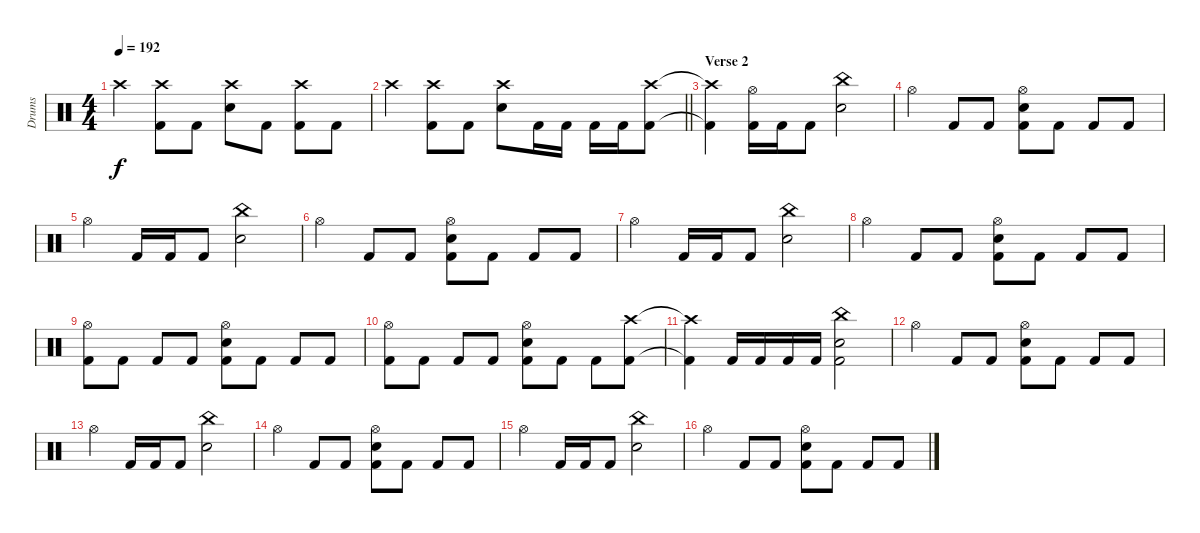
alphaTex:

\track ("Drums" "Drums") {instrument percussion}
\staff {score}
\articulation defaults
\ts (4 4)
\tempo 192
\clef neutral
\ks c "Crash high (hit)".4{dy f}
("Crash high (hit)" "Kick (hit) 2").8 "Kick (hit) 2".8 ("Crash high (hit)" "Electric Snare (hit)").8 "Kick (hit) 2".8 ("Crash high (hit)" "Kick (hit) 2").8 "Kick (hit) 2".8 |
\barLineRight lightlight "Crash high (hit)".4
("Crash high (hit)" "Kick (hit) 2").8 "Kick (hit) 2".8 ("Crash high (hit)" "Electric Snare (hit)").8 "Kick (hit) 2".16 "Kick (hit) 2".16 "Kick (hit) 2".16 "Kick (hit) 2".16 ("Crash high (hit)" "Kick (hit) 2").8 |
\section ("" "Verse 2")
("Crash high (hit)"{t} "Kick (hit) 2"{t}).4 ("Hi-Hat (open)" "Kick (hit) 2").16 "Kick (hit) 2".16 "Kick (hit) 2".8 ("China (hit)" "Electric Snare (hit)").2 |
"Hi-Hat (open)".4 "Kick (hit) 2".8 "Kick (hit) 2".8 ("Hi-Hat (open)" "Electric Snare (hit)" "Kick (hit) 2").8 "Kick (hit) 2".8 "Kick (hit) 2".8 "Kick (hit) 2".8 |
"Hi-Hat (open)".4 "Kick (hit) 2".16 "Kick (hit) 2".16 "Kick (hit) 2".8 ("China (hit)" "Electric Snare (hit)").2 |
"Hi-Hat (open)".4 "Kick (hit) 2".8 "Kick (hit) 2".8 ("Hi-Hat (open)" "Electric Snare (hit)" "Kick (hit) 2").8 "Kick (hit) 2".8 "Kick (hit) 2".8 "Kick (hit) 2".8 |
"Hi-Hat (open)".4 "Kick (hit) 2".16 "Kick (hit) 2".16 "Kick (hit) 2".8 ("China (hit)" "Electric Snare (hit)").2 |
"Hi-Hat (open)".4 "Kick (hit) 2".8 "Kick (hit) 2".8 ("Hi-Hat (open)" "Electric Snare (hit)" "Kick (hit) 2").8 "Kick (hit) 2".8 "Kick (hit) 2".8 "Kick (hit) 2".8 |
("Hi-Hat (open)" "Kick (hit) 2").8 "Kick (hit) 2".8 "Kick (hit) 2".8 "Kick (hit) 2".8 ("Hi-Hat (open)" "Electric Snare (hit)" "Kick (hit) 2").8 "Kick (hit) 2".8 "Kick (hit) 2".8 "Kick (hit) 2".8 |
("Hi-Hat (open)" "Kick (hit) 2").8 "Kick (hit) 2".8 "Kick (hit) 2".8 "Kick (hit) 2".8 ("Hi-Hat (open)" "Electric Snare (hit)" "Kick (hit) 2").8 "Kick (hit) 2".8 "Kick (hit) 2".8 ("Crash high (hit)" "Kick (hit) 2").8 |
("Crash high (hit)"{t} "Kick (hit) 2"{t}).4 "Kick (hit) 2".16 "Kick (hit) 2".16 "Kick (hit) 2".16 "Kick (hit) 2".16 ("China (hit)" "Electric Snare (hit)" "Kick (hit) 2").2 |
"Hi-Hat (open)".4 "Kick (hit) 2".8 "Kick (hit) 2".8 ("Hi-Hat (open)" "Electric Snare (hit)" "Kick (hit) 2").8 "Kick (hit) 2".8 "Kick (hit) 2".8 "Kick (hit) 2".8 |
"Hi-Hat (open)".4 "Kick (hit) 2".16 "Kick (hit) 2".16 "Kick (hit) 2".8 ("China (hit)" "Electric Snare (hit)").2 |
"Hi-Hat (open)".4 "Kick (hit) 2".8 "Kick (hit) 2".8 ("Hi-Hat (open)" "Electric Snare (hit)" "Kick (hit) 2").8 "Kick (hit) 2".8 "Kick (hit) 2".8 "Kick (hit) 2".8 |
"Hi-Hat (open)".4 "Kick (hit) 2".16 "Kick (hit) 2".16 "Kick (hit) 2".8 ("China (hit)" "Electric Snare (hit)").2 |
"Hi-Hat (open)".4 "Kick (hit) 2".8 "Kick (hit) 2".8 ("Hi-Hat (open)" "Electric Snare (hit)" "Kick (hit) 2").8 "Kick (hit) 2".8 "Kick (hit) 2".8 "Kick (hit) 2".8
